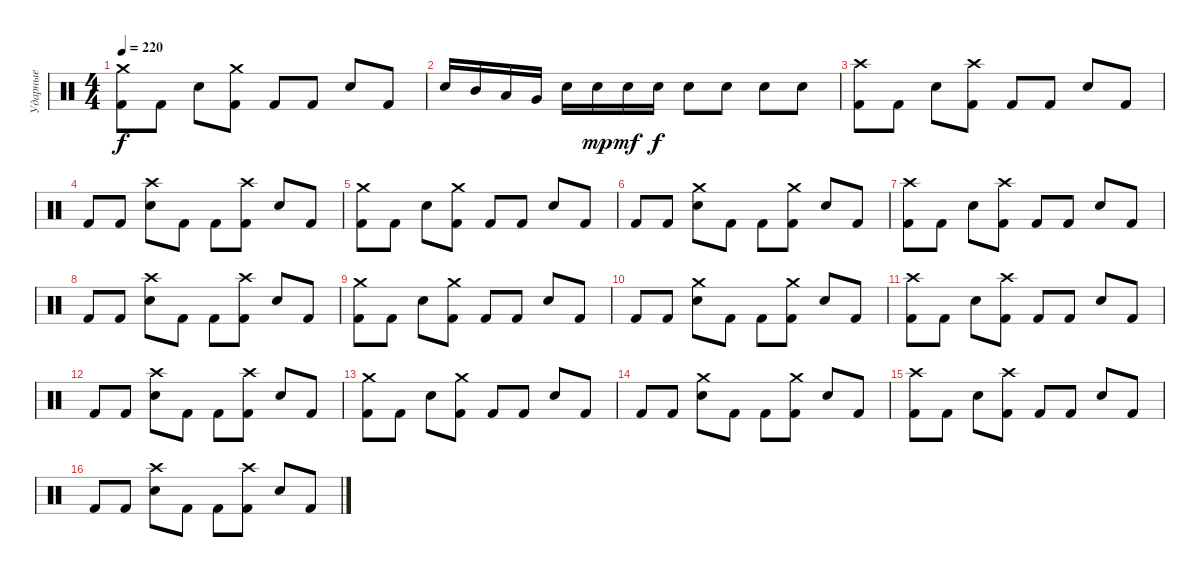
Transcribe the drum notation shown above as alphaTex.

\track ("Ударные" "Ударные") {instrument percussion}
\staff {score}
\articulation defaults
\ts (4 4)
\tempo 220
\clef neutral
\ks c
("Crash medium (hit)" "Kick (hit) 2").8{dy f} "Kick (hit) 2".8 "Electric Snare (hit)".8 ("Crash medium (hit)" "Kick (hit) 2").8 "Kick (hit) 2".8 "Kick (hit) 2".8 "Electric Snare (hit)".8 "Kick (hit) 2".8 |
"Electric Snare (hit)".16 "Mid Tom (hit)".16 "Low Tom (hit)".16 "Very Low Tom (hit)".16 "Electric Snare (hit)".16 "Electric Snare (hit)".16{dy mp} "Electric Snare (hit)".16{dy mf} "Electric Snare (hit)".16{dy f} "Electric Snare (hit)".8 "Electric Snare (hit)".8 "Electric Snare (hit)".8 "Electric Snare (hit)".8 |
("Crash high (hit)" "Kick (hit) 2").8 "Kick (hit) 2".8 "Electric Snare (hit)".8 ("Crash high (hit)" "Kick (hit) 2").8 "Kick (hit) 2".8 "Kick (hit) 2".8 "Electric Snare (hit)".8 "Kick (hit) 2".8 |
"Kick (hit) 2".8 "Kick (hit) 2".8 ("Crash high (hit)" "Electric Snare (hit)").8 "Kick (hit) 2".8 "Kick (hit) 2".8 ("Crash high (hit)" "Kick (hit) 2").8 "Electric Snare (hit)".8 "Kick (hit) 2".8 |
("Crash medium (hit)" "Kick (hit) 2").8 "Kick (hit) 2".8 "Electric Snare (hit)".8 ("Crash medium (hit)" "Kick (hit) 2").8 "Kick (hit) 2".8 "Kick (hit) 2".8 "Electric Snare (hit)".8 "Kick (hit) 2".8 |
"Kick (hit) 2".8 "Kick (hit) 2".8 ("Crash medium (hit)" "Electric Snare (hit)").8 "Kick (hit) 2".8 "Kick (hit) 2".8 ("Crash medium (hit)" "Kick (hit) 2").8 "Electric Snare (hit)".8 "Kick (hit) 2".8 |
("Crash high (hit)" "Kick (hit) 2").8 "Kick (hit) 2".8 "Electric Snare (hit)".8 ("Crash high (hit)" "Kick (hit) 2").8 "Kick (hit) 2".8 "Kick (hit) 2".8 "Electric Snare (hit)".8 "Kick (hit) 2".8 |
"Kick (hit) 2".8 "Kick (hit) 2".8 ("Crash high (hit)" "Electric Snare (hit)").8 "Kick (hit) 2".8 "Kick (hit) 2".8 ("Crash high (hit)" "Kick (hit) 2").8 "Electric Snare (hit)".8 "Kick (hit) 2".8 |
("Crash medium (hit)" "Kick (hit) 2").8 "Kick (hit) 2".8 "Electric Snare (hit)".8 ("Crash medium (hit)" "Kick (hit) 2").8 "Kick (hit) 2".8 "Kick (hit) 2".8 "Electric Snare (hit)".8 "Kick (hit) 2".8 |
"Kick (hit) 2".8 "Kick (hit) 2".8 ("Crash medium (hit)" "Electric Snare (hit)").8 "Kick (hit) 2".8 "Kick (hit) 2".8 ("Crash medium (hit)" "Kick (hit) 2").8 "Electric Snare (hit)".8 "Kick (hit) 2".8 |
("Crash high (hit)" "Kick (hit) 2").8 "Kick (hit) 2".8 "Electric Snare (hit)".8 ("Crash high (hit)" "Kick (hit) 2").8 "Kick (hit) 2".8 "Kick (hit) 2".8 "Electric Snare (hit)".8 "Kick (hit) 2".8 |
"Kick (hit) 2".8 "Kick (hit) 2".8 ("Crash high (hit)" "Electric Snare (hit)").8 "Kick (hit) 2".8 "Kick (hit) 2".8 ("Crash high (hit)" "Kick (hit) 2").8 "Electric Snare (hit)".8 "Kick (hit) 2".8 |
("Crash medium (hit)" "Kick (hit) 2").8 "Kick (hit) 2".8 "Electric Snare (hit)".8 ("Crash medium (hit)" "Kick (hit) 2").8 "Kick (hit) 2".8 "Kick (hit) 2".8 "Electric Snare (hit)".8 "Kick (hit) 2".8 |
"Kick (hit) 2".8 "Kick (hit) 2".8 ("Crash medium (hit)" "Electric Snare (hit)").8 "Kick (hit) 2".8 "Kick (hit) 2".8 ("Crash medium (hit)" "Kick (hit) 2").8 "Electric Snare (hit)".8 "Kick (hit) 2".8 |
("Crash high (hit)" "Kick (hit) 2").8 "Kick (hit) 2".8 "Electric Snare (hit)".8 ("Crash high (hit)" "Kick (hit) 2").8 "Kick (hit) 2".8 "Kick (hit) 2".8 "Electric Snare (hit)".8 "Kick (hit) 2".8 |
"Kick (hit) 2".8 "Kick (hit) 2".8 ("Crash high (hit)" "Electric Snare (hit)").8 "Kick (hit) 2".8 "Kick (hit) 2".8 ("Crash high (hit)" "Kick (hit) 2").8 "Electric Snare (hit)".8 "Kick (hit) 2".8
